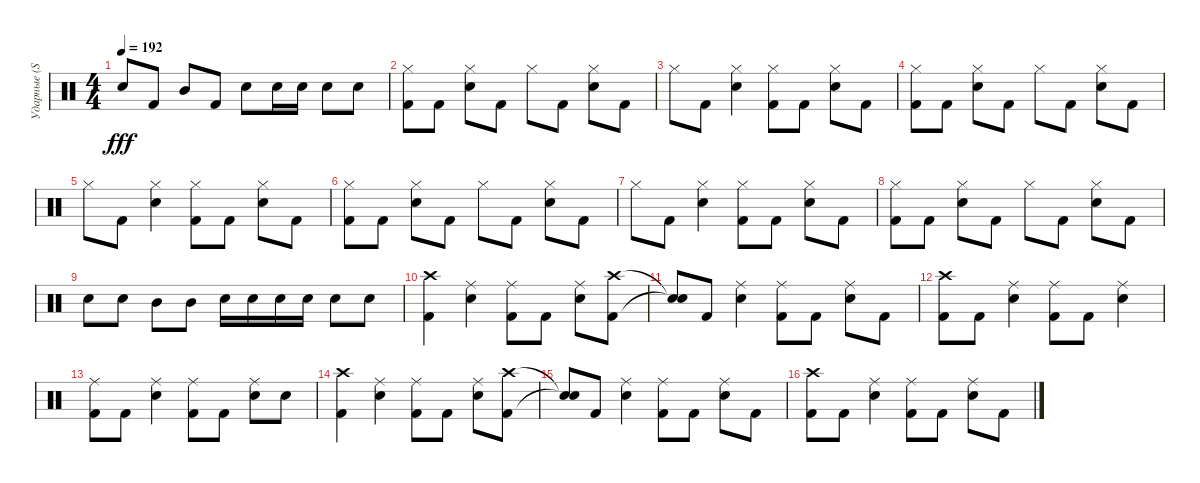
\track ("Ударные (Steve Jocz)" "Ударные (S") {instrument percussion}
\staff {score}
\articulation defaults
\ts (4 4)
\tempo 192
\clef neutral
\ks c "Electric Snare (hit)".8{dy fff} "Kick (hit) 2".8 "Mid Tom (hit)".8 "Kick (hit) 2".8 "Electric Snare (hit)".8 "Electric Snare (hit)".16 "Electric Snare (hit)".16 "Electric Snare (hit)".8 "Electric Snare (hit)".8
|
("Hi-Hat (closed)" "Kick (hit) 2").8 "Kick (hit) 2".8 ("Hi-Hat (closed)" "Electric Snare (hit)").8 "Kick (hit) 2".8 "Hi-Hat (closed)".8 "Kick (hit) 2".8 ("Hi-Hat (closed)" "Electric Snare (hit)").8 "Kick (hit) 2".8 |
"Hi-Hat (closed)".8 "Kick (hit) 2".8 ("Hi-Hat (closed)" "Electric Snare (hit)").4 ("Hi-Hat (closed)" "Kick (hit) 2").8 "Kick (hit) 2".8 ("Hi-Hat (closed)" "Electric Snare (hit)").8 "Kick (hit) 2".8 |
("Hi-Hat (closed)" "Kick (hit) 2").8 "Kick (hit) 2".8 ("Hi-Hat (closed)" "Electric Snare (hit)").8 "Kick (hit) 2".8 "Hi-Hat (closed)".8 "Kick (hit) 2".8 ("Hi-Hat (closed)" "Electric Snare (hit)").8 "Kick (hit) 2".8 |
"Hi-Hat (closed)".8 "Kick (hit) 2".8 ("Hi-Hat (closed)" "Electric Snare (hit)").4 ("Hi-Hat (closed)" "Kick (hit) 2").8 "Kick (hit) 2".8 ("Hi-Hat (closed)" "Electric Snare (hit)").8 "Kick (hit) 2".8 |
("Hi-Hat (closed)" "Kick (hit) 2").8 "Kick (hit) 2".8 ("Hi-Hat (closed)" "Electric Snare (hit)").8 "Kick (hit) 2".8 "Hi-Hat (closed)".8 "Kick (hit) 2".8 ("Hi-Hat (closed)" "Electric Snare (hit)").8 "Kick (hit) 2".8 |
"Hi-Hat (closed)".8 "Kick (hit) 2".8 ("Hi-Hat (closed)" "Electric Snare (hit)").4 ("Hi-Hat (closed)" "Kick (hit) 2").8 "Kick (hit) 2".8 ("Hi-Hat (closed)" "Electric Snare (hit)").8 "Kick (hit) 2".8 |
("Hi-Hat (closed)" "Kick (hit) 2").8 "Kick (hit) 2".8 ("Hi-Hat (closed)" "Electric Snare (hit)").8 "Kick (hit) 2".8 "Hi-Hat (closed)".8 "Kick (hit) 2".8 ("Hi-Hat (closed)" "Electric Snare (hit)").8 "Kick (hit) 2".8 |
"Electric Snare (hit)".8 "Electric Snare (hit)".8 "Mid Tom (hit)".8 "Mid Tom (hit)".8 "Electric Snare (hit)".16 "Electric Snare (hit)".16 "Electric Snare (hit)".16 "Electric Snare (hit)".16 "Electric Snare (hit)".8 "Electric Snare (hit)".8 |
("Crash high (hit)" "Kick (hit) 2").4 ("Ride (middle)" "Electric Snare (hit)").4 ("Ride (middle)" "Kick (hit) 2").8 "Kick (hit) 2".8 ("Ride (middle)" "Electric Snare (hit)").8 ("Crash high (hit)" "Kick (hit) 2").8 |
("Snare (hit)"{t} "Snare (hit)"{t}).8 "Kick (hit) 2".8 ("Ride (middle)" "Electric Snare (hit)").4 ("Ride (middle)" "Kick (hit) 2").8 "Kick (hit) 2".8 ("Ride (middle)" "Electric Snare (hit)").8 "Kick (hit) 2".8 |
("Crash high (hit)" "Kick (hit) 2").8 "Kick (hit) 2".8 ("Ride (middle)" "Electric Snare (hit)").4 ("Ride (middle)" "Kick (hit) 2").8 "Kick (hit) 2".8 ("Ride (middle)" "Electric Snare (hit)").4 |
("Ride (middle)" "Kick (hit) 2").8 "Kick (hit) 2".8 ("Ride (middle)" "Electric Snare (hit)").4 ("Ride (middle)" "Kick (hit) 2").8 "Kick (hit) 2".8 ("Ride (middle)" "Electric Snare (hit)").8 "Electric Snare (hit)".8 |
("Crash high (hit)" "Kick (hit) 2").4 ("Ride (middle)" "Electric Snare (hit)").4 ("Ride (middle)" "Kick (hit) 2").8 "Kick (hit) 2".8 ("Ride (middle)" "Electric Snare (hit)").8 ("Crash high (hit)" "Kick (hit) 2").8 |
("Snare (hit)"{t} "Snare (hit)"{t}).8 "Kick (hit) 2".8 ("Ride (middle)" "Electric Snare (hit)").4 ("Ride (middle)" "Kick (hit) 2").8 "Kick (hit) 2".8 ("Ride (middle)" "Electric Snare (hit)").8 "Kick (hit) 2".8 |
("Crash high (hit)" "Kick (hit) 2").8 "Kick (hit) 2".8 ("Ride (middle)" "Electric Snare (hit)").4 ("Ride (middle)" "Kick (hit) 2").8 "Kick (hit) 2".8 ("Ride (middle)" "Electric Snare (hit)").8 "Kick (hit) 2".8
